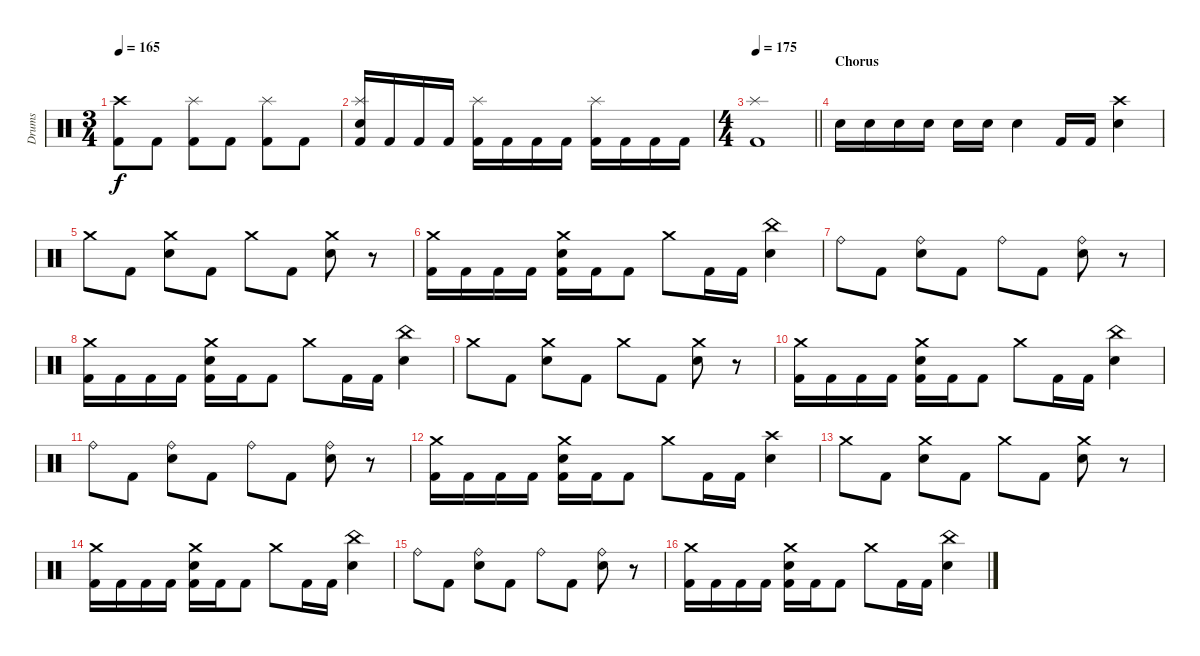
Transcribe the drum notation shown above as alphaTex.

\track ("Drums" "Drums") {instrument percussion}
\staff {score}
\articulation defaults
\ts (3 4)
\tempo 165
\clef neutral
\ks c
("Crash high (hit)" "Kick (hit) 2").8{dy f} "Kick (hit) 2".8 ("Splash (hit)" "Kick (hit) 2").8 "Kick (hit) 2".8 ("Splash (hit)" "Kick (hit) 2").8 "Kick (hit) 2".8 |
("Splash (hit)" "Electric Snare (hit)" "Kick (hit) 2").16 "Kick (hit) 2".16 "Kick (hit) 2".16 "Kick (hit) 2".16 ("Splash (hit)" "Kick (hit) 2").16 "Kick (hit) 2".16 "Kick (hit) 2".16 "Kick (hit) 2".16 ("Splash (hit)" "Kick (hit) 2").16 "Kick (hit) 2".16 "Kick (hit) 2".16 "Kick (hit) 2".16 |
\ts (4 4)
\tempo 175
\barLineRight lightlight
("Splash (hit)" "Kick (hit) 2").1 |
\section ("" "Chorus")
"Electric Snare (hit)".16 "Electric Snare (hit)".16 "Electric Snare (hit)".16 "Electric Snare (hit)".16 "Electric Snare (hit)".16 "Electric Snare (hit)".16 "Electric Snare (hit)".4 "Kick (hit) 2".16 "Kick (hit) 2".16 ("Crash high (hit)" "Electric Snare (hit)").4 |
"Crash medium (hit)".8 "Kick (hit) 2".8 ("Crash medium (hit)" "Electric Snare (hit)").8 "Kick (hit) 2".8 "Crash medium (hit)".8 "Kick (hit) 2".8 ("Crash medium (hit)" "Electric Snare (hit)").8 r.8 |
("Crash medium (hit)" "Kick (hit) 2").16 "Kick (hit) 2".16 "Kick (hit) 2".16 "Kick (hit) 2".16 ("Crash medium (hit)" "Electric Snare (hit)" "Kick (hit) 2").16 "Kick (hit) 2".16 "Kick (hit) 2".8 "Crash medium (hit)".8 "Kick (hit) 2".16 "Kick (hit) 2".16 ("China (hit)" "Electric Snare (hit)").4 |
"Ride (bell)".8 "Kick (hit) 2".8 ("Ride (bell)" "Electric Snare (hit)").8 "Kick (hit) 2".8 "Ride (bell)".8 "Kick (hit) 2".8 ("Ride (bell)" "Electric Snare (hit)").8 r.8 |
("Crash medium (hit)" "Kick (hit) 2").16 "Kick (hit) 2".16 "Kick (hit) 2".16 "Kick (hit) 2".16 ("Crash medium (hit)" "Electric Snare (hit)" "Kick (hit) 2").16 "Kick (hit) 2".16 "Kick (hit) 2".8 "Crash medium (hit)".8 "Kick (hit) 2".16 "Kick (hit) 2".16 ("China (hit)" "Electric Snare (hit)").4 |
"Crash medium (hit)".8 "Kick (hit) 2".8 ("Crash medium (hit)" "Electric Snare (hit)").8 "Kick (hit) 2".8 "Crash medium (hit)".8 "Kick (hit) 2".8 ("Crash medium (hit)" "Electric Snare (hit)").8 r.8 |
("Crash medium (hit)" "Kick (hit) 2").16 "Kick (hit) 2".16 "Kick (hit) 2".16 "Kick (hit) 2".16 ("Crash medium (hit)" "Electric Snare (hit)" "Kick (hit) 2").16 "Kick (hit) 2".16 "Kick (hit) 2".8 "Crash medium (hit)".8 "Kick (hit) 2".16 "Kick (hit) 2".16 ("China (hit)" "Electric Snare (hit)").4 |
"Ride (bell)".8 "Kick (hit) 2".8 ("Ride (bell)" "Electric Snare (hit)").8 "Kick (hit) 2".8 "Ride (bell)".8 "Kick (hit) 2".8 ("Ride (bell)" "Electric Snare (hit)").8 r.8 |
("Crash medium (hit)" "Kick (hit) 2").16 "Kick (hit) 2".16 "Kick (hit) 2".16 "Kick (hit) 2".16 ("Crash medium (hit)" "Electric Snare (hit)" "Kick (hit) 2").16 "Kick (hit) 2".16 "Kick (hit) 2".8 "Crash medium (hit)".8 "Kick (hit) 2".16 "Kick (hit) 2".16 ("Crash high (hit)" "Electric Snare (hit)").4 |
"Crash medium (hit)".8 "Kick (hit) 2".8 ("Crash medium (hit)" "Electric Snare (hit)").8 "Kick (hit) 2".8 "Crash medium (hit)".8 "Kick (hit) 2".8 ("Crash medium (hit)" "Electric Snare (hit)").8 r.8 |
("Crash medium (hit)" "Kick (hit) 2").16 "Kick (hit) 2".16 "Kick (hit) 2".16 "Kick (hit) 2".16 ("Crash medium (hit)" "Electric Snare (hit)" "Kick (hit) 2").16 "Kick (hit) 2".16 "Kick (hit) 2".8 "Crash medium (hit)".8 "Kick (hit) 2".16 "Kick (hit) 2".16 ("China (hit)" "Electric Snare (hit)").4 |
"Ride (bell)".8 "Kick (hit) 2".8 ("Ride (bell)" "Electric Snare (hit)").8 "Kick (hit) 2".8 "Ride (bell)".8 "Kick (hit) 2".8 ("Ride (bell)" "Electric Snare (hit)").8 r.8 |
("Crash medium (hit)" "Kick (hit) 2").16 "Kick (hit) 2".16 "Kick (hit) 2".16 "Kick (hit) 2".16 ("Crash medium (hit)" "Electric Snare (hit)" "Kick (hit) 2").16 "Kick (hit) 2".16 "Kick (hit) 2".8 "Crash medium (hit)".8 "Kick (hit) 2".16 "Kick (hit) 2".16 ("China (hit)" "Electric Snare (hit)").4
